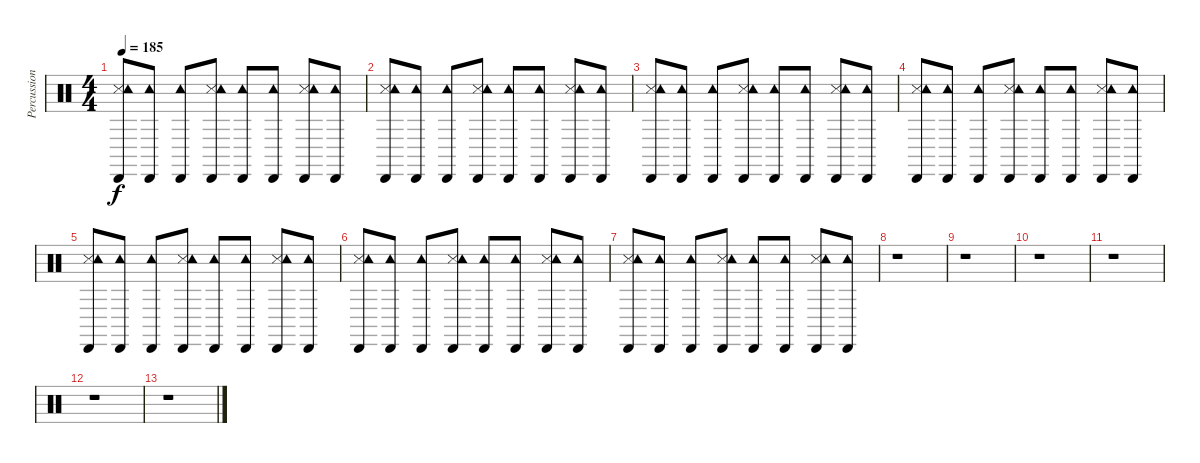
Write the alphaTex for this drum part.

\track ("Percussion" "Percussion") {instrument percussion}
\staff {score}
\articulation defaults
\ts (4 4)
\tempo 185
\clef neutral
\ks c
("Cabasa (hit)" "Snare (side stick) 3" "Tambourine (hit)").8{dy f} ("Cabasa (hit)" "Tambourine (hit)").8 ("Cabasa (hit)" "Tambourine (hit)").8 ("Cabasa (hit)" "Snare (side stick) 3" "Tambourine (hit)").8 ("Cabasa (hit)" "Tambourine (hit)").8 ("Cabasa (hit)" "Tambourine (hit)").8 ("Cabasa (hit)" "Snare (side stick) 3" "Tambourine (hit)").8 ("Cabasa (hit)" "Tambourine (hit)").8 |
("Cabasa (hit)" "Snare (side stick) 3" "Tambourine (hit)").8 ("Cabasa (hit)" "Tambourine (hit)").8 ("Cabasa (hit)" "Tambourine (hit)").8 ("Cabasa (hit)" "Snare (side stick) 3" "Tambourine (hit)").8 ("Cabasa (hit)" "Tambourine (hit)").8 ("Cabasa (hit)" "Tambourine (hit)").8 ("Cabasa (hit)" "Snare (side stick) 3" "Tambourine (hit)").8 ("Cabasa (hit)" "Tambourine (hit)").8 |
("Cabasa (hit)" "Snare (side stick) 3" "Tambourine (hit)").8 ("Cabasa (hit)" "Tambourine (hit)").8 ("Cabasa (hit)" "Tambourine (hit)").8 ("Cabasa (hit)" "Snare (side stick) 3" "Tambourine (hit)").8 ("Cabasa (hit)" "Tambourine (hit)").8 ("Cabasa (hit)" "Tambourine (hit)").8 ("Cabasa (hit)" "Snare (side stick) 3" "Tambourine (hit)").8 ("Cabasa (hit)" "Tambourine (hit)").8 |
("Cabasa (hit)" "Snare (side stick) 3" "Tambourine (hit)").8 ("Cabasa (hit)" "Tambourine (hit)").8 ("Cabasa (hit)" "Tambourine (hit)").8 ("Cabasa (hit)" "Snare (side stick) 3" "Tambourine (hit)").8 ("Cabasa (hit)" "Tambourine (hit)").8 ("Cabasa (hit)" "Tambourine (hit)").8 ("Cabasa (hit)" "Snare (side stick) 3" "Tambourine (hit)").8 ("Cabasa (hit)" "Tambourine (hit)").8 |
("Cabasa (hit)" "Snare (side stick) 3" "Tambourine (hit)").8 ("Cabasa (hit)" "Tambourine (hit)").8 ("Cabasa (hit)" "Tambourine (hit)").8 ("Cabasa (hit)" "Snare (side stick) 3" "Tambourine (hit)").8 ("Cabasa (hit)" "Tambourine (hit)").8 ("Cabasa (hit)" "Tambourine (hit)").8 ("Cabasa (hit)" "Snare (side stick) 3" "Tambourine (hit)").8 ("Cabasa (hit)" "Tambourine (hit)").8 |
("Cabasa (hit)" "Snare (side stick) 3" "Tambourine (hit)").8 ("Cabasa (hit)" "Tambourine (hit)").8 ("Cabasa (hit)" "Tambourine (hit)").8 ("Cabasa (hit)" "Snare (side stick) 3" "Tambourine (hit)").8 ("Cabasa (hit)" "Tambourine (hit)").8 ("Cabasa (hit)" "Tambourine (hit)").8 ("Cabasa (hit)" "Snare (side stick) 3" "Tambourine (hit)").8 ("Cabasa (hit)" "Tambourine (hit)").8 |
("Cabasa (hit)" "Snare (side stick) 3" "Tambourine (hit)").8 ("Cabasa (hit)" "Tambourine (hit)").8 ("Cabasa (hit)" "Tambourine (hit)").8 ("Cabasa (hit)" "Snare (side stick) 3" "Tambourine (hit)").8 ("Cabasa (hit)" "Tambourine (hit)").8 ("Cabasa (hit)" "Tambourine (hit)").8 ("Cabasa (hit)" "Snare (side stick) 3" "Tambourine (hit)").8 ("Cabasa (hit)" "Tambourine (hit)").8 |
r.1 |
r.1 |
r.1 |
r.1 |
r.1 |
r.1
